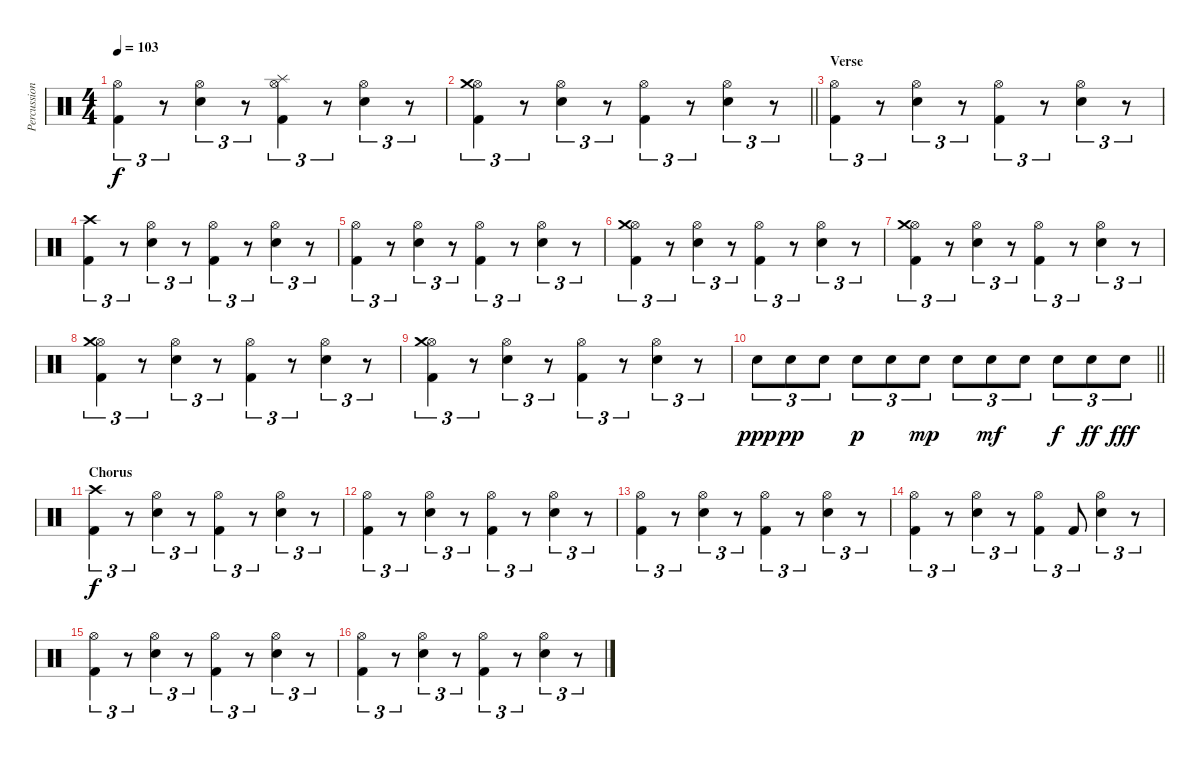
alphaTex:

\track ("Percussion" "Percussion") {instrument percussion}
\staff {score}
\articulation defaults
\ts (4 4)
\tempo 103
\clef neutral
\ks c
("Kick (hit) 2" "Hi-Hat (open)").4{tu (3 2) dy f} r.8{tu (3 2)} ("Electric Snare (hit)" "Hi-Hat (open)").4{tu (3 2)} r.8{tu (3 2)} ("Kick (hit) 2" "Hi-Hat (open)" "Splash (hit)").4{tu (3 2)} r.8{tu (3 2)} ("Electric Snare (hit)" "Hi-Hat (open)").4{tu (3 2)} r.8{tu (3 2)} |
\barLineRight lightlight
("Kick (hit) 2" "Hi-Hat (open)" "Crash medium (hit)").4{tu (3 2)} r.8{tu (3 2)} ("Electric Snare (hit)" "Hi-Hat (open)").4{tu (3 2)} r.8{tu (3 2)} ("Kick (hit) 2" "Hi-Hat (open)").4{tu (3 2)} r.8{tu (3 2)} ("Electric Snare (hit)" "Hi-Hat (open)").4{tu (3 2)} r.8{tu (3 2)} |
\section ("" "Verse")
("Kick (hit) 2" "Hi-Hat (open)").4{tu (3 2)} r.8{tu (3 2)} ("Electric Snare (hit)" "Hi-Hat (open)").4{tu (3 2)} r.8{tu (3 2)} ("Kick (hit) 2" "Hi-Hat (open)").4{tu (3 2)} r.8{tu (3 2)} ("Electric Snare (hit)" "Hi-Hat (open)").4{tu (3 2)} r.8{tu (3 2)} |
("Kick (hit) 2" "Crash high (hit)").4{tu (3 2)} r.8{tu (3 2)} ("Electric Snare (hit)" "Hi-Hat (open)").4{tu (3 2)} r.8{tu (3 2)} ("Kick (hit) 2" "Hi-Hat (open)").4{tu (3 2)} r.8{tu (3 2)} ("Electric Snare (hit)" "Hi-Hat (open)").4{tu (3 2)} r.8{tu (3 2)} |
("Kick (hit) 2" "Hi-Hat (open)").4{tu (3 2)} r.8{tu (3 2)} ("Electric Snare (hit)" "Hi-Hat (open)").4{tu (3 2)} r.8{tu (3 2)} ("Kick (hit) 2" "Hi-Hat (open)").4{tu (3 2)} r.8{tu (3 2)} ("Electric Snare (hit)" "Hi-Hat (open)").4{tu (3 2)} r.8{tu (3 2)} |
("Kick (hit) 2" "Hi-Hat (open)" "Crash medium (hit)").4{tu (3 2)} r.8{tu (3 2)} ("Electric Snare (hit)" "Hi-Hat (open)").4{tu (3 2)} r.8{tu (3 2)} ("Kick (hit) 2" "Hi-Hat (open)").4{tu (3 2)} r.8{tu (3 2)} ("Electric Snare (hit)" "Hi-Hat (open)").4{tu (3 2)} r.8{tu (3 2)} |
("Kick (hit) 2" "Hi-Hat (open)" "Crash medium (hit)").4{tu (3 2)} r.8{tu (3 2)} ("Electric Snare (hit)" "Hi-Hat (open)").4{tu (3 2)} r.8{tu (3 2)} ("Kick (hit) 2" "Hi-Hat (open)").4{tu (3 2)} r.8{tu (3 2)} ("Electric Snare (hit)" "Hi-Hat (open)").4{tu (3 2)} r.8{tu (3 2)} |
("Kick (hit) 2" "Hi-Hat (open)" "Crash medium (hit)").4{tu (3 2)} r.8{tu (3 2)} ("Electric Snare (hit)" "Hi-Hat (open)").4{tu (3 2)} r.8{tu (3 2)} ("Kick (hit) 2" "Hi-Hat (open)").4{tu (3 2)} r.8{tu (3 2)} ("Electric Snare (hit)" "Hi-Hat (open)").4{tu (3 2)} r.8{tu (3 2)} |
("Kick (hit) 2" "Hi-Hat (open)" "Crash medium (hit)").4{tu (3 2)} r.8{tu (3 2)} ("Electric Snare (hit)" "Hi-Hat (open)").4{tu (3 2)} r.8{tu (3 2)} ("Kick (hit) 2" "Hi-Hat (open)").4{tu (3 2)} r.8{tu (3 2)} ("Electric Snare (hit)" "Hi-Hat (open)").4{tu (3 2)} r.8{tu (3 2)} |
\barLineRight lightlight "Electric Snare (hit)".8{tu (3 2) dy ppp} "Electric Snare (hit)".8{tu (3 2) dy pp} "Electric Snare (hit)".8{tu (3 2)} "Electric Snare (hit)".8{tu (3 2) dy p} "Electric Snare (hit)".8{tu (3 2)} "Electric Snare (hit)".8{tu (3 2) dy mp} "Electric Snare (hit)".8{tu (3 2)} "Electric Snare (hit)".8{tu (3 2) dy mf} "Electric Snare (hit)".8{tu (3 2)} "Electric Snare (hit)".8{tu (3 2) dy f} "Electric Snare (hit)".8{tu (3 2) dy ff} "Electric Snare (hit)".8{tu (3 2) dy fff}
|
\section ("" "Chorus")
("Crash high (hit)" "Kick (hit) 2").4{tu (3 2) dy f} r.8{tu (3 2)} ("Hi-Hat (open)" "Electric Snare (hit)").4{tu (3 2)} r.8{tu (3 2)} ("Hi-Hat (open)" "Kick (hit) 2").4{tu (3 2)} r.8{tu (3 2)} ("Hi-Hat (open)" "Electric Snare (hit)").4{tu (3 2)} r.8{tu (3 2)} |
("Hi-Hat (open)" "Kick (hit) 2").4{tu (3 2)} r.8{tu (3 2)} ("Hi-Hat (open)" "Electric Snare (hit)").4{tu (3 2)} r.8{tu (3 2)} ("Hi-Hat (open)" "Kick (hit) 2").4{tu (3 2)} r.8{tu (3 2)} ("Hi-Hat (open)" "Electric Snare (hit)").4{tu (3 2)} r.8{tu (3 2)} |
("Hi-Hat (open)" "Kick (hit) 2").4{tu (3 2)} r.8{tu (3 2)} ("Hi-Hat (open)" "Electric Snare (hit)").4{tu (3 2)} r.8{tu (3 2)} ("Hi-Hat (open)" "Kick (hit) 2").4{tu (3 2)} r.8{tu (3 2)} ("Hi-Hat (open)" "Electric Snare (hit)").4{tu (3 2)} r.8{tu (3 2)} |
("Hi-Hat (open)" "Kick (hit) 2").4{tu (3 2)} r.8{tu (3 2)} ("Hi-Hat (open)" "Electric Snare (hit)").4{tu (3 2)} r.8{tu (3 2)} ("Hi-Hat (open)" "Kick (hit) 2").4{tu (3 2)} "Kick (hit) 2".8{tu (3 2)} ("Hi-Hat (open)" "Electric Snare (hit)").4{tu (3 2)} r.8{tu (3 2)} |
("Hi-Hat (open)" "Kick (hit) 2").4{tu (3 2)} r.8{tu (3 2)} ("Hi-Hat (open)" "Electric Snare (hit)").4{tu (3 2)} r.8{tu (3 2)} ("Hi-Hat (open)" "Kick (hit) 2").4{tu (3 2)} r.8{tu (3 2)} ("Hi-Hat (open)" "Electric Snare (hit)").4{tu (3 2)} r.8{tu (3 2)} |
("Hi-Hat (open)" "Kick (hit) 2").4{tu (3 2)} r.8{tu (3 2)} ("Hi-Hat (open)" "Electric Snare (hit)").4{tu (3 2)} r.8{tu (3 2)} ("Hi-Hat (open)" "Kick (hit) 2").4{tu (3 2)} r.8{tu (3 2)} ("Hi-Hat (open)" "Electric Snare (hit)").4{tu (3 2)} r.8{tu (3 2)}
